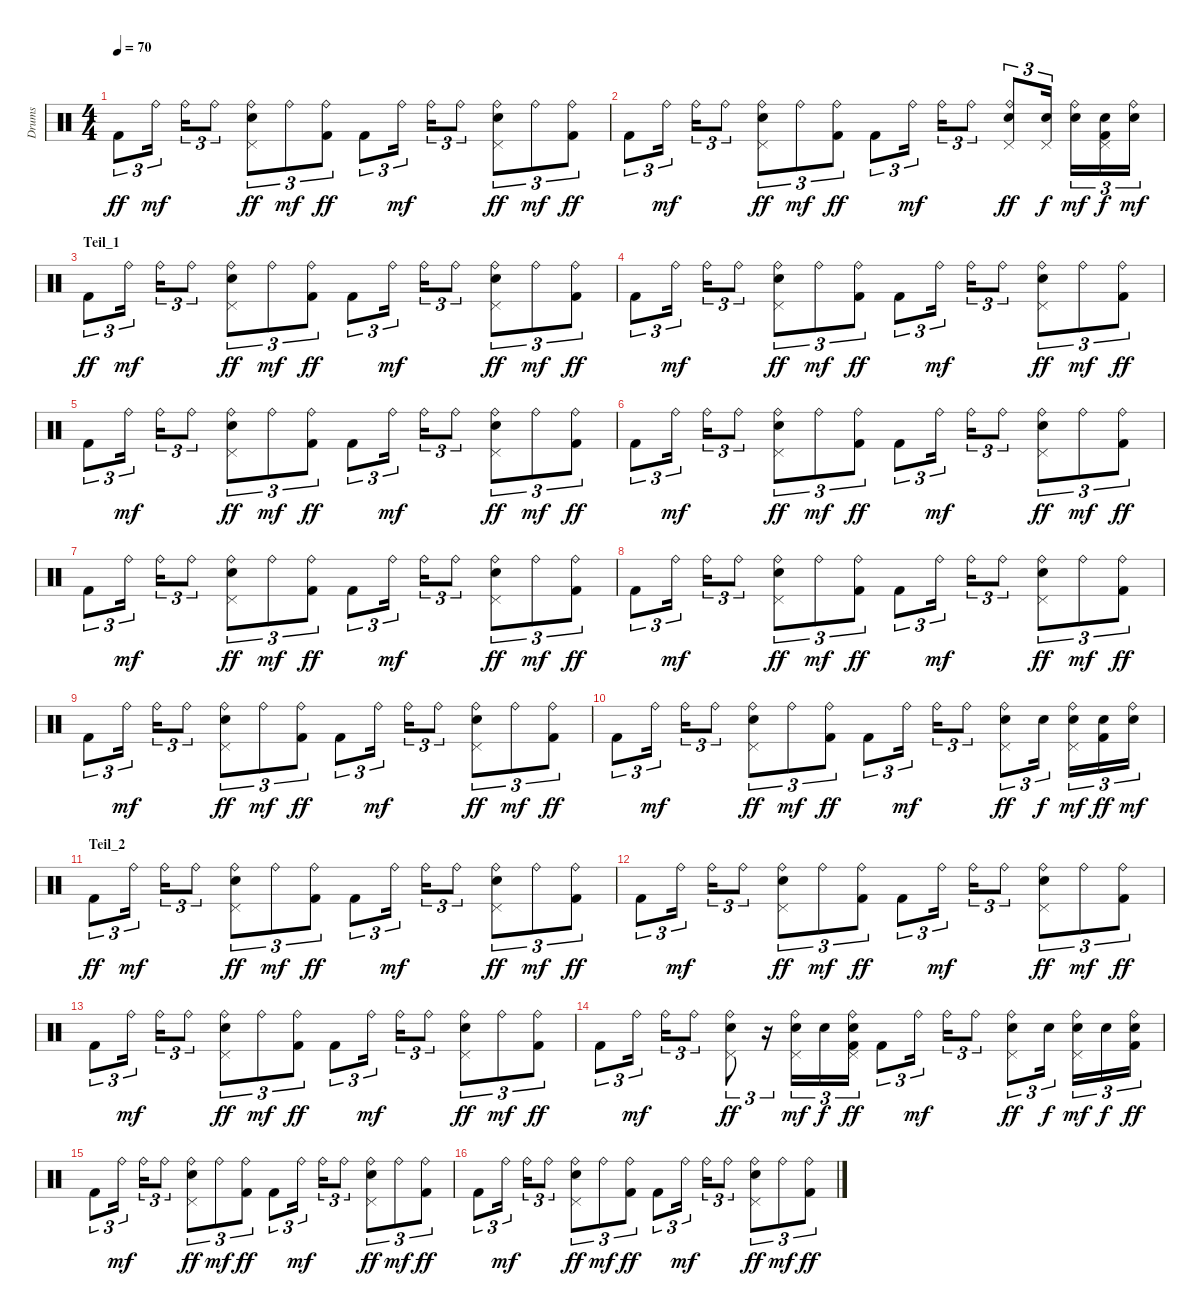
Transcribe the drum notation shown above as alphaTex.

\track ("Drums" "Drums") {instrument percussion}
\staff {score}
\articulation defaults
\ts (4 4)
\tempo 70
\clef neutral
\ks c "Kick (hit) 2".8{tu (3 2) dy ff} "Ride (bell)".16{tu (3 2) dy mf} "Ride (bell)".16{tu (3 2)} "Ride (bell)".8{tu (3 2)}
("Ride (bell)" "Pedal Hi-Hat (hit)" "Electric Snare (hit)").8{tu (3 2) dy ff} "Ride (bell)".8{tu (3 2) dy mf} ("Ride (bell)" "Kick (hit) 2").8{tu (3 2) dy ff} "Kick (hit) 2".8{tu (3 2)} "Ride (bell)".16{tu (3 2) dy mf} "Ride (bell)".16{tu (3 2)} "Ride (bell)".8{tu (3 2)} ("Ride (bell)" "Pedal Hi-Hat (hit)" "Electric Snare (hit)").8{tu (3 2) dy ff} "Ride (bell)".8{tu (3 2) dy mf} ("Ride (bell)" "Kick (hit) 2").8{tu (3 2) dy ff} |
"Kick (hit) 2".8{tu (3 2)} "Ride (bell)".16{tu (3 2) dy mf} "Ride (bell)".16{tu (3 2)} "Ride (bell)".8{tu (3 2)} ("Ride (bell)" "Pedal Hi-Hat (hit)" "Electric Snare (hit)").8{tu (3 2) dy ff} "Ride (bell)".8{tu (3 2) dy mf} ("Ride (bell)" "Kick (hit) 2").8{tu (3 2) dy ff} "Kick (hit) 2".8{tu (3 2)} "Ride (bell)".16{tu (3 2) dy mf} "Ride (bell)".16{tu (3 2)} "Ride (bell)".8{tu (3 2)} ("Ride (bell)" "Pedal Hi-Hat (hit)" "Electric Snare (hit)").8{tu (3 2) dy ff} ("Pedal Hi-Hat (hit)" "Electric Snare (hit)").16{tu (3 2) dy f} ("Ride (bell)" "Electric Snare (hit)").16{tu (3 2) dy mf} ("Pedal Hi-Hat (hit)" "Electric Snare (hit)" "Kick (hit) 2").16{tu (3 2) dy f} ("Ride (bell)" "Electric Snare (hit)").16{tu (3 2) dy mf} |
\section ("" "Teil_1")
"Kick (hit) 2".8{tu (3 2) dy ff} "Ride (bell)".16{tu (3 2) dy mf} "Ride (bell)".16{tu (3 2)} "Ride (bell)".8{tu (3 2)} ("Ride (bell)" "Pedal Hi-Hat (hit)" "Electric Snare (hit)").8{tu (3 2) dy ff} "Ride (bell)".8{tu (3 2) dy mf} ("Ride (bell)" "Kick (hit) 2").8{tu (3 2) dy ff} "Kick (hit) 2".8{tu (3 2)} "Ride (bell)".16{tu (3 2) dy mf} "Ride (bell)".16{tu (3 2)} "Ride (bell)".8{tu (3 2)} ("Ride (bell)" "Pedal Hi-Hat (hit)" "Electric Snare (hit)").8{tu (3 2) dy ff} "Ride (bell)".8{tu (3 2) dy mf} ("Ride (bell)" "Kick (hit) 2").8{tu (3 2) dy ff} |
"Kick (hit) 2".8{tu (3 2)} "Ride (bell)".16{tu (3 2) dy mf} "Ride (bell)".16{tu (3 2)} "Ride (bell)".8{tu (3 2)} ("Ride (bell)" "Pedal Hi-Hat (hit)" "Electric Snare (hit)").8{tu (3 2) dy ff} "Ride (bell)".8{tu (3 2) dy mf} ("Ride (bell)" "Kick (hit) 2").8{tu (3 2) dy ff} "Kick (hit) 2".8{tu (3 2)} "Ride (bell)".16{tu (3 2) dy mf} "Ride (bell)".16{tu (3 2)} "Ride (bell)".8{tu (3 2)} ("Ride (bell)" "Pedal Hi-Hat (hit)" "Electric Snare (hit)").8{tu (3 2) dy ff} "Ride (bell)".8{tu (3 2) dy mf} ("Ride (bell)" "Kick (hit) 2").8{tu (3 2) dy ff} |
"Kick (hit) 2".8{tu (3 2)} "Ride (bell)".16{tu (3 2) dy mf} "Ride (bell)".16{tu (3 2)} "Ride (bell)".8{tu (3 2)} ("Ride (bell)" "Pedal Hi-Hat (hit)" "Electric Snare (hit)").8{tu (3 2) dy ff} "Ride (bell)".8{tu (3 2) dy mf} ("Ride (bell)" "Kick (hit) 2").8{tu (3 2) dy ff} "Kick (hit) 2".8{tu (3 2)} "Ride (bell)".16{tu (3 2) dy mf} "Ride (bell)".16{tu (3 2)} "Ride (bell)".8{tu (3 2)} ("Ride (bell)" "Pedal Hi-Hat (hit)" "Electric Snare (hit)").8{tu (3 2) dy ff} "Ride (bell)".8{tu (3 2) dy mf} ("Ride (bell)" "Kick (hit) 2").8{tu (3 2) dy ff} |
"Kick (hit) 2".8{tu (3 2)} "Ride (bell)".16{tu (3 2) dy mf} "Ride (bell)".16{tu (3 2)} "Ride (bell)".8{tu (3 2)} ("Ride (bell)" "Pedal Hi-Hat (hit)" "Electric Snare (hit)").8{tu (3 2) dy ff} "Ride (bell)".8{tu (3 2) dy mf} ("Ride (bell)" "Kick (hit) 2").8{tu (3 2) dy ff} "Kick (hit) 2".8{tu (3 2)} "Ride (bell)".16{tu (3 2) dy mf} "Ride (bell)".16{tu (3 2)} "Ride (bell)".8{tu (3 2)} ("Ride (bell)" "Pedal Hi-Hat (hit)" "Electric Snare (hit)").8{tu (3 2) dy ff} "Ride (bell)".8{tu (3 2) dy mf} ("Ride (bell)" "Kick (hit) 2").8{tu (3 2) dy ff} |
"Kick (hit) 2".8{tu (3 2)} "Ride (bell)".16{tu (3 2) dy mf} "Ride (bell)".16{tu (3 2)} "Ride (bell)".8{tu (3 2)} ("Ride (bell)" "Pedal Hi-Hat (hit)" "Electric Snare (hit)").8{tu (3 2) dy ff} "Ride (bell)".8{tu (3 2) dy mf} ("Ride (bell)" "Kick (hit) 2").8{tu (3 2) dy ff} "Kick (hit) 2".8{tu (3 2)} "Ride (bell)".16{tu (3 2) dy mf} "Ride (bell)".16{tu (3 2)} "Ride (bell)".8{tu (3 2)} ("Ride (bell)" "Pedal Hi-Hat (hit)" "Electric Snare (hit)").8{tu (3 2) dy ff} "Ride (bell)".8{tu (3 2) dy mf} ("Ride (bell)" "Kick (hit) 2").8{tu (3 2) dy ff} |
"Kick (hit) 2".8{tu (3 2)} "Ride (bell)".16{tu (3 2) dy mf} "Ride (bell)".16{tu (3 2)} "Ride (bell)".8{tu (3 2)} ("Ride (bell)" "Pedal Hi-Hat (hit)" "Electric Snare (hit)").8{tu (3 2) dy ff} "Ride (bell)".8{tu (3 2) dy mf} ("Ride (bell)" "Kick (hit) 2").8{tu (3 2) dy ff} "Kick (hit) 2".8{tu (3 2)} "Ride (bell)".16{tu (3 2) dy mf} "Ride (bell)".16{tu (3 2)} "Ride (bell)".8{tu (3 2)} ("Ride (bell)" "Pedal Hi-Hat (hit)" "Electric Snare (hit)").8{tu (3 2) dy ff} "Ride (bell)".8{tu (3 2) dy mf} ("Ride (bell)" "Kick (hit) 2").8{tu (3 2) dy ff} |
"Kick (hit) 2".8{tu (3 2)} "Ride (bell)".16{tu (3 2) dy mf} "Ride (bell)".16{tu (3 2)} "Ride (bell)".8{tu (3 2)} ("Ride (bell)" "Pedal Hi-Hat (hit)" "Electric Snare (hit)").8{tu (3 2) dy ff} "Ride (bell)".8{tu (3 2) dy mf} ("Ride (bell)" "Kick (hit) 2").8{tu (3 2) dy ff} "Kick (hit) 2".8{tu (3 2)} "Ride (bell)".16{tu (3 2) dy mf} "Ride (bell)".16{tu (3 2)} "Ride (bell)".8{tu (3 2)} ("Ride (bell)" "Pedal Hi-Hat (hit)" "Electric Snare (hit)").8{tu (3 2) dy ff} "Ride (bell)".8{tu (3 2) dy mf} ("Ride (bell)" "Kick (hit) 2").8{tu (3 2) dy ff} |
"Kick (hit) 2".8{tu (3 2)} "Ride (bell)".16{tu (3 2) dy mf} "Ride (bell)".16{tu (3 2)} "Ride (bell)".8{tu (3 2)} ("Ride (bell)" "Pedal Hi-Hat (hit)" "Electric Snare (hit)").8{tu (3 2) dy ff} "Ride (bell)".8{tu (3 2) dy mf} ("Ride (bell)" "Kick (hit) 2").8{tu (3 2) dy ff} "Kick (hit) 2".8{tu (3 2)} "Ride (bell)".16{tu (3 2) dy mf} "Ride (bell)".16{tu (3 2)} "Ride (bell)".8{tu (3 2)} ("Ride (bell)" "Pedal Hi-Hat (hit)" "Electric Snare (hit)").8{tu (3 2) dy ff} "Electric Snare (hit)".16{tu (3 2) dy f} ("Ride (bell)" "Pedal Hi-Hat (hit)" "Electric Snare (hit)").16{tu (3 2) dy mf} ("Electric Snare (hit)" "Kick (hit) 2").16{tu (3 2) dy ff} ("Ride (bell)" "Electric Snare (hit)").16{tu (3 2) dy mf} |
\section ("" "Teil_2")
"Kick (hit) 2".8{tu (3 2) dy ff} "Ride (bell)".16{tu (3 2) dy mf} "Ride (bell)".16{tu (3 2)} "Ride (bell)".8{tu (3 2)} ("Ride (bell)" "Pedal Hi-Hat (hit)" "Electric Snare (hit)").8{tu (3 2) dy ff} "Ride (bell)".8{tu (3 2) dy mf} ("Ride (bell)" "Kick (hit) 2").8{tu (3 2) dy ff} "Kick (hit) 2".8{tu (3 2)} "Ride (bell)".16{tu (3 2) dy mf} "Ride (bell)".16{tu (3 2)} "Ride (bell)".8{tu (3 2)} ("Ride (bell)" "Pedal Hi-Hat (hit)" "Electric Snare (hit)").8{tu (3 2) dy ff} "Ride (bell)".8{tu (3 2) dy mf} ("Ride (bell)" "Kick (hit) 2").8{tu (3 2) dy ff} |
"Kick (hit) 2".8{tu (3 2)} "Ride (bell)".16{tu (3 2) dy mf} "Ride (bell)".16{tu (3 2)} "Ride (bell)".8{tu (3 2)} ("Ride (bell)" "Pedal Hi-Hat (hit)" "Electric Snare (hit)").8{tu (3 2) dy ff} "Ride (bell)".8{tu (3 2) dy mf} ("Ride (bell)" "Kick (hit) 2").8{tu (3 2) dy ff} "Kick (hit) 2".8{tu (3 2)} "Ride (bell)".16{tu (3 2) dy mf} "Ride (bell)".16{tu (3 2)} "Ride (bell)".8{tu (3 2)} ("Ride (bell)" "Pedal Hi-Hat (hit)" "Electric Snare (hit)").8{tu (3 2) dy ff} "Ride (bell)".8{tu (3 2) dy mf} ("Ride (bell)" "Kick (hit) 2").8{tu (3 2) dy ff} |
"Kick (hit) 2".8{tu (3 2)} "Ride (bell)".16{tu (3 2) dy mf} "Ride (bell)".16{tu (3 2)} "Ride (bell)".8{tu (3 2)} ("Ride (bell)" "Pedal Hi-Hat (hit)" "Electric Snare (hit)").8{tu (3 2) dy ff} "Ride (bell)".8{tu (3 2) dy mf} ("Ride (bell)" "Kick (hit) 2").8{tu (3 2) dy ff} "Kick (hit) 2".8{tu (3 2)} "Ride (bell)".16{tu (3 2) dy mf} "Ride (bell)".16{tu (3 2)} "Ride (bell)".8{tu (3 2)} ("Ride (bell)" "Pedal Hi-Hat (hit)" "Electric Snare (hit)").8{tu (3 2) dy ff} "Ride (bell)".8{tu (3 2) dy mf} ("Ride (bell)" "Kick (hit) 2").8{tu (3 2) dy ff} |
"Kick (hit) 2".8{tu (3 2)} "Ride (bell)".16{tu (3 2) dy mf} "Ride (bell)".16{tu (3 2)} "Ride (bell)".8{tu (3 2)} ("Ride (bell)" "Pedal Hi-Hat (hit)" "Electric Snare (hit)").8{tu (3 2) dy ff} r.16{tu (3 2)} ("Ride (bell)" "Pedal Hi-Hat (hit)" "Electric Snare (hit)").16{tu (3 2) dy mf} "Electric Snare (hit)".16{tu (3 2) dy f} ("Ride (bell)" "Pedal Hi-Hat (hit)" "Electric Snare (hit)" "Kick (hit) 2").16{tu (3 2) dy ff} "Kick (hit) 2".8{tu (3 2)} "Ride (bell)".16{tu (3 2) dy mf} "Ride (bell)".16{tu (3 2)} "Ride (bell)".8{tu (3 2)} ("Ride (bell)" "Pedal Hi-Hat (hit)" "Electric Snare (hit)").8{tu (3 2) dy ff} "Electric Snare (hit)".16{tu (3 2) dy f} ("Ride (bell)" "Pedal Hi-Hat (hit)" "Electric Snare (hit)").16{tu (3 2) dy mf} "Electric Snare (hit)".16{tu (3 2) dy f} ("Ride (bell)" "Electric Snare (hit)" "Kick (hit) 2").16{tu (3 2) dy ff} |
"Kick (hit) 2".8{tu (3 2)} "Ride (bell)".16{tu (3 2) dy mf} "Ride (bell)".16{tu (3 2)} "Ride (bell)".8{tu (3 2)} ("Ride (bell)" "Pedal Hi-Hat (hit)" "Electric Snare (hit)").8{tu (3 2) dy ff} "Ride (bell)".8{tu (3 2) dy mf} ("Ride (bell)" "Kick (hit) 2").8{tu (3 2) dy ff} "Kick (hit) 2".8{tu (3 2)} "Ride (bell)".16{tu (3 2) dy mf} "Ride (bell)".16{tu (3 2)} "Ride (bell)".8{tu (3 2)} ("Ride (bell)" "Pedal Hi-Hat (hit)" "Electric Snare (hit)").8{tu (3 2) dy ff} "Ride (bell)".8{tu (3 2) dy mf} ("Ride (bell)" "Kick (hit) 2").8{tu (3 2) dy ff} |
"Kick (hit) 2".8{tu (3 2)} "Ride (bell)".16{tu (3 2) dy mf} "Ride (bell)".16{tu (3 2)} "Ride (bell)".8{tu (3 2)} ("Ride (bell)" "Pedal Hi-Hat (hit)" "Electric Snare (hit)").8{tu (3 2) dy ff} "Ride (bell)".8{tu (3 2) dy mf} ("Ride (bell)" "Kick (hit) 2").8{tu (3 2) dy ff} "Kick (hit) 2".8{tu (3 2)} "Ride (bell)".16{tu (3 2) dy mf} "Ride (bell)".16{tu (3 2)} "Ride (bell)".8{tu (3 2)} ("Ride (bell)" "Pedal Hi-Hat (hit)" "Electric Snare (hit)").8{tu (3 2) dy ff} "Ride (bell)".8{tu (3 2) dy mf} ("Ride (bell)" "Kick (hit) 2").8{tu (3 2) dy ff}
